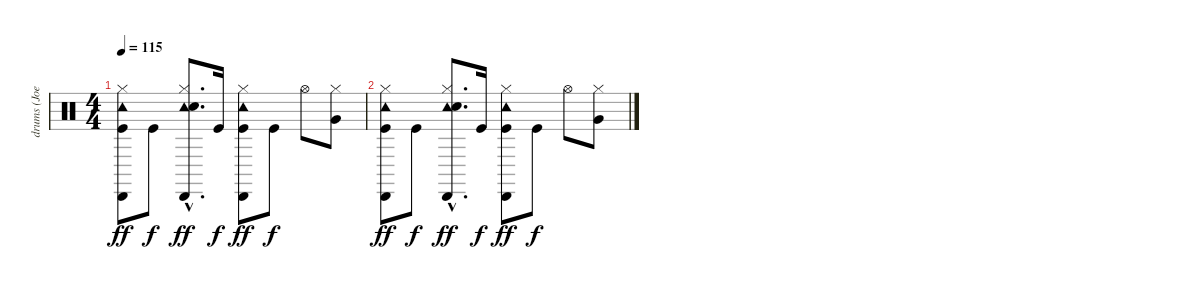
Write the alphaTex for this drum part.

\track ("drums (Joey Castillo)" "drums (Joe") {instrument percussion}
\staff {score}
\articulation defaults
\ts (4 4)
\tempo 115
\clef neutral
\ks c
("Tambourine (hit)" "Cabasa (hit)" "Kick (hit)" "Hi-Hat (closed)").8{dy ff} "Kick (hit)".8{dy f} ("Tambourine (hit)"{hac} "Cabasa (hit)"{hac} "Electric Snare (hit)"{hac} "Hi-Hat (closed)"{hac}).8{d dy ff} "Kick (hit)".16{dy f} ("Tambourine (hit)" "Cabasa (hit)" "Kick (hit)" "Hi-Hat (closed)").8{dy ff} "Kick (hit)".8{dy f} "Hi-Hat (open)".8 ("Very Low Tom (hit)" "Hi-Hat (closed)").8 |
("Tambourine (hit)" "Cabasa (hit)" "Kick (hit)" "Hi-Hat (closed)").8{dy ff} "Kick (hit)".8{dy f} ("Tambourine (hit)"{hac} "Cabasa (hit)"{hac} "Electric Snare (hit)"{hac} "Hi-Hat (closed)"{hac}).8{d dy ff} "Kick (hit)".16{dy f} ("Tambourine (hit)" "Cabasa (hit)" "Kick (hit)" "Hi-Hat (closed)").8{dy ff} "Kick (hit)".8{dy f} "Hi-Hat (open)".8 ("Very Low Tom (hit)" "Hi-Hat (closed)").8
